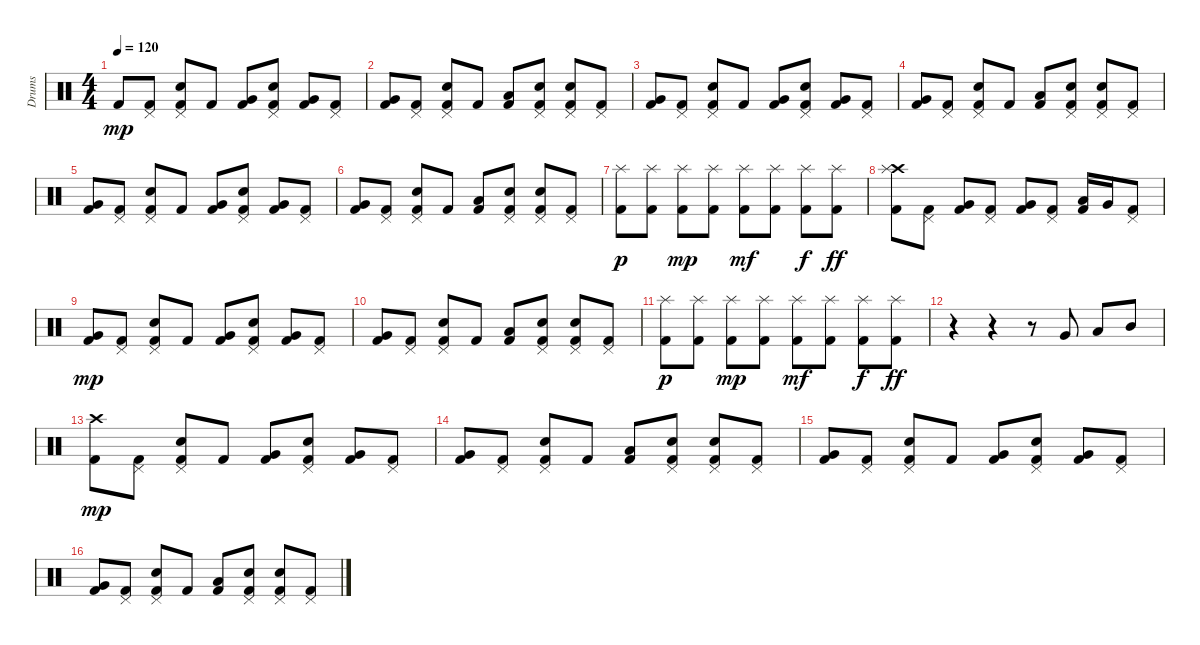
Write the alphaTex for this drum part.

\track ("Drums" "Drums") {instrument percussion}
\staff {score}
\articulation defaults
\ts (4 4)
\tempo 120
\clef neutral
\ks c "Kick (hit) 2".8{dy mp volume 13}
("Pedal Hi-Hat (hit)" "Kick (hit) 2").8 ("Pedal Hi-Hat (hit)" "Electric Snare (hit)" "Kick (hit) 2").8 "Kick (hit) 2".8 ("Very Low Tom (hit)" "Kick (hit) 2").8 ("Pedal Hi-Hat (hit)" "Electric Snare (hit)" "Kick (hit) 2").8 ("Very Low Tom (hit)" "Kick (hit) 2").8 ("Pedal Hi-Hat (hit)" "Kick (hit) 2").8 |
("Very Low Tom (hit)" "Kick (hit) 2").8 ("Pedal Hi-Hat (hit)" "Kick (hit) 2").8 ("Pedal Hi-Hat (hit)" "Electric Snare (hit)" "Kick (hit) 2").8 "Kick (hit) 2".8 ("Low Tom (hit)" "Kick (hit) 2").8 ("Pedal Hi-Hat (hit)" "Electric Snare (hit)" "Kick (hit) 2").8 ("Pedal Hi-Hat (hit)" "Electric Snare (hit)" "Kick (hit) 2").8 ("Pedal Hi-Hat (hit)" "Kick (hit) 2").8 |
("Very Low Tom (hit)" "Kick (hit) 2").8 ("Pedal Hi-Hat (hit)" "Kick (hit) 2").8 ("Pedal Hi-Hat (hit)" "Electric Snare (hit)" "Kick (hit) 2").8 "Kick (hit) 2".8 ("Very Low Tom (hit)" "Kick (hit) 2").8 ("Pedal Hi-Hat (hit)" "Electric Snare (hit)" "Kick (hit) 2").8 ("Very Low Tom (hit)" "Kick (hit) 2").8 ("Pedal Hi-Hat (hit)" "Kick (hit) 2").8 |
("Very Low Tom (hit)" "Kick (hit) 2").8 ("Pedal Hi-Hat (hit)" "Kick (hit) 2").8 ("Pedal Hi-Hat (hit)" "Electric Snare (hit)" "Kick (hit) 2").8 "Kick (hit) 2".8 ("Low Tom (hit)" "Kick (hit) 2").8 ("Pedal Hi-Hat (hit)" "Electric Snare (hit)" "Kick (hit) 2").8 ("Pedal Hi-Hat (hit)" "Electric Snare (hit)" "Kick (hit) 2").8 ("Pedal Hi-Hat (hit)" "Kick (hit) 2").8 |
("Very Low Tom (hit)" "Kick (hit) 2").8 ("Pedal Hi-Hat (hit)" "Kick (hit) 2").8 ("Pedal Hi-Hat (hit)" "Electric Snare (hit)" "Kick (hit) 2").8 "Kick (hit) 2".8 ("Very Low Tom (hit)" "Kick (hit) 2").8 ("Pedal Hi-Hat (hit)" "Electric Snare (hit)" "Kick (hit) 2").8 ("Very Low Tom (hit)" "Kick (hit) 2").8 ("Pedal Hi-Hat (hit)" "Kick (hit) 2").8 |
("Very Low Tom (hit)" "Kick (hit) 2").8 ("Pedal Hi-Hat (hit)" "Kick (hit) 2").8 ("Pedal Hi-Hat (hit)" "Electric Snare (hit)" "Kick (hit) 2").8 "Kick (hit) 2".8 ("Low Tom (hit)" "Kick (hit) 2").8 ("Pedal Hi-Hat (hit)" "Electric Snare (hit)" "Kick (hit) 2").8 ("Pedal Hi-Hat (hit)" "Electric Snare (hit)" "Kick (hit) 2").8 ("Pedal Hi-Hat (hit)" "Kick (hit) 2").8 |
("Splash (hit)" "Kick (hit) 2").8{dy p} ("Splash (hit)" "Kick (hit) 2").8 ("Splash (hit)" "Kick (hit) 2").8{dy mp} ("Splash (hit)" "Kick (hit) 2").8 ("Splash (hit)" "Kick (hit) 2").8{dy mf} ("Splash (hit)" "Kick (hit) 2").8 ("Splash (hit)" "Kick (hit) 2").8{dy f} ("Splash (hit)" "Kick (hit) 2").8{dy ff} |
("Crash high (hit)" "Splash (hit)" "Kick (hit) 2").8 ("Pedal Hi-Hat (hit)" "Kick (hit) 2").8 ("Very Low Tom (hit)" "Kick (hit) 2").8 ("Pedal Hi-Hat (hit)" "Kick (hit) 2").8 ("Very Low Tom (hit)" "Kick (hit) 2").8 ("Pedal Hi-Hat (hit)" "Kick (hit) 2").8 ("Low Tom (hit)" "Kick (hit) 2").16 "Very Low Tom (hit)".16 ("Pedal Hi-Hat (hit)" "Kick (hit) 2").8 |
("Very Low Tom (hit)" "Kick (hit) 2").8{dy mp} ("Pedal Hi-Hat (hit)" "Kick (hit) 2").8 ("Pedal Hi-Hat (hit)" "Electric Snare (hit)" "Kick (hit) 2").8 "Kick (hit) 2".8 ("Very Low Tom (hit)" "Kick (hit) 2").8 ("Pedal Hi-Hat (hit)" "Electric Snare (hit)" "Kick (hit) 2").8 ("Very Low Tom (hit)" "Kick (hit) 2").8 ("Pedal Hi-Hat (hit)" "Kick (hit) 2").8 |
("Very Low Tom (hit)" "Kick (hit) 2").8 ("Pedal Hi-Hat (hit)" "Kick (hit) 2").8 ("Pedal Hi-Hat (hit)" "Electric Snare (hit)" "Kick (hit) 2").8 "Kick (hit) 2".8 ("Low Tom (hit)" "Kick (hit) 2").8 ("Pedal Hi-Hat (hit)" "Electric Snare (hit)" "Kick (hit) 2").8 ("Pedal Hi-Hat (hit)" "Electric Snare (hit)" "Kick (hit) 2").8 ("Pedal Hi-Hat (hit)" "Kick (hit) 2").8 |
("Splash (hit)" "Kick (hit) 2").8{dy p} ("Splash (hit)" "Kick (hit) 2").8 ("Splash (hit)" "Kick (hit) 2").8{dy mp} ("Splash (hit)" "Kick (hit) 2").8 ("Splash (hit)" "Kick (hit) 2").8{dy mf} ("Splash (hit)" "Kick (hit) 2").8 ("Splash (hit)" "Kick (hit) 2").8{dy f} ("Splash (hit)" "Kick (hit) 2").8{dy ff} |
r.4 r.4 r.8 "Very Low Tom (hit)".8 "Low Tom (hit)".8 "Mid Tom (hit)".8 |
("Crash high (hit)" "Kick (hit) 2").8{dy mp volume 13} ("Pedal Hi-Hat (hit)" "Kick (hit) 2").8 ("Pedal Hi-Hat (hit)" "Electric Snare (hit)" "Kick (hit) 2").8 "Kick (hit) 2".8 ("Very Low Tom (hit)" "Kick (hit) 2").8 ("Pedal Hi-Hat (hit)" "Electric Snare (hit)" "Kick (hit) 2").8 ("Very Low Tom (hit)" "Kick (hit) 2").8 ("Pedal Hi-Hat (hit)" "Kick (hit) 2").8 |
("Very Low Tom (hit)" "Kick (hit) 2").8 ("Pedal Hi-Hat (hit)" "Kick (hit) 2").8 ("Pedal Hi-Hat (hit)" "Electric Snare (hit)" "Kick (hit) 2").8 "Kick (hit) 2".8 ("Low Tom (hit)" "Kick (hit) 2").8 ("Pedal Hi-Hat (hit)" "Electric Snare (hit)" "Kick (hit) 2").8 ("Pedal Hi-Hat (hit)" "Electric Snare (hit)" "Kick (hit) 2").8 ("Pedal Hi-Hat (hit)" "Kick (hit) 2").8 |
("Very Low Tom (hit)" "Kick (hit) 2").8 ("Pedal Hi-Hat (hit)" "Kick (hit) 2").8 ("Pedal Hi-Hat (hit)" "Electric Snare (hit)" "Kick (hit) 2").8 "Kick (hit) 2".8 ("Very Low Tom (hit)" "Kick (hit) 2").8 ("Pedal Hi-Hat (hit)" "Electric Snare (hit)" "Kick (hit) 2").8 ("Very Low Tom (hit)" "Kick (hit) 2").8 ("Pedal Hi-Hat (hit)" "Kick (hit) 2").8 |
("Very Low Tom (hit)" "Kick (hit) 2").8 ("Pedal Hi-Hat (hit)" "Kick (hit) 2").8 ("Pedal Hi-Hat (hit)" "Electric Snare (hit)" "Kick (hit) 2").8 "Kick (hit) 2".8 ("Low Tom (hit)" "Kick (hit) 2").8 ("Pedal Hi-Hat (hit)" "Electric Snare (hit)" "Kick (hit) 2").8 ("Pedal Hi-Hat (hit)" "Electric Snare (hit)" "Kick (hit) 2").8 ("Pedal Hi-Hat (hit)" "Kick (hit) 2").8
